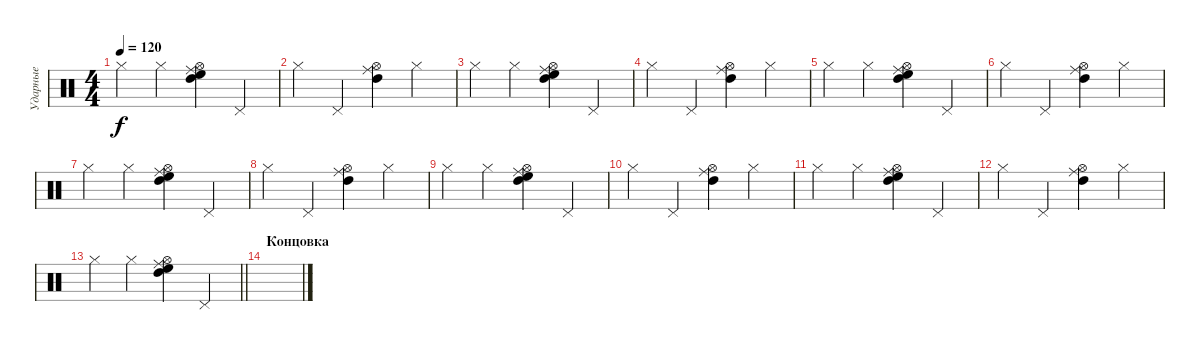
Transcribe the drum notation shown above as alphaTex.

\track ("Ударные" "Ударные") {instrument percussion}
\staff {score}
\articulation defaults
\ts (4 4)
\tempo 120
\clef neutral
\ks c "Hi-Hat (closed)".4{dy f} "Hi-Hat (closed)".4
("Ride (middle)" "Hi-Hat (open)" "High Tom (hit)" "High Floor Tom (hit)").4 "Pedal Hi-Hat (hit)".4 |
"Hi-Hat (closed)".4 "Pedal Hi-Hat (hit)".4 ("Hi-Hat (open)" "High Tom (hit)" "Ride (middle)").4 "Hi-Hat (closed)".4 |
"Hi-Hat (closed)".4 "Hi-Hat (closed)".4 ("Ride (middle)" "Hi-Hat (open)" "High Tom (hit)" "High Floor Tom (hit)").4 "Pedal Hi-Hat (hit)".4 |
"Hi-Hat (closed)".4 "Pedal Hi-Hat (hit)".4 ("Hi-Hat (open)" "High Tom (hit)" "Ride (middle)").4 "Hi-Hat (closed)".4 |
"Hi-Hat (closed)".4 "Hi-Hat (closed)".4 ("Ride (middle)" "Hi-Hat (open)" "High Tom (hit)" "High Floor Tom (hit)").4 "Pedal Hi-Hat (hit)".4 |
"Hi-Hat (closed)".4 "Pedal Hi-Hat (hit)".4 ("Hi-Hat (open)" "High Tom (hit)" "Ride (middle)").4 "Hi-Hat (closed)".4 |
"Hi-Hat (closed)".4 "Hi-Hat (closed)".4 ("Ride (middle)" "Hi-Hat (open)" "High Tom (hit)" "High Floor Tom (hit)").4 "Pedal Hi-Hat (hit)".4 |
"Hi-Hat (closed)".4 "Pedal Hi-Hat (hit)".4 ("Hi-Hat (open)" "High Tom (hit)" "Ride (middle)").4 "Hi-Hat (closed)".4 |
"Hi-Hat (closed)".4 "Hi-Hat (closed)".4 ("Ride (middle)" "Hi-Hat (open)" "High Tom (hit)" "High Floor Tom (hit)").4 "Pedal Hi-Hat (hit)".4 |
"Hi-Hat (closed)".4 "Pedal Hi-Hat (hit)".4 ("Hi-Hat (open)" "High Tom (hit)" "Ride (middle)").4 "Hi-Hat (closed)".4 |
"Hi-Hat (closed)".4 "Hi-Hat (closed)".4 ("Ride (middle)" "Hi-Hat (open)" "High Tom (hit)" "High Floor Tom (hit)").4 "Pedal Hi-Hat (hit)".4 |
"Hi-Hat (closed)".4 "Pedal Hi-Hat (hit)".4 ("Hi-Hat (open)" "High Tom (hit)" "Ride (middle)").4 "Hi-Hat (closed)".4 |
\barLineRight lightlight "Hi-Hat (closed)".4 "Hi-Hat (closed)".4
("Ride (middle)" "Hi-Hat (open)" "High Tom (hit)" "High Floor Tom (hit)").4 "Pedal Hi-Hat (hit)".4 |
\section ("" "Концовка")
